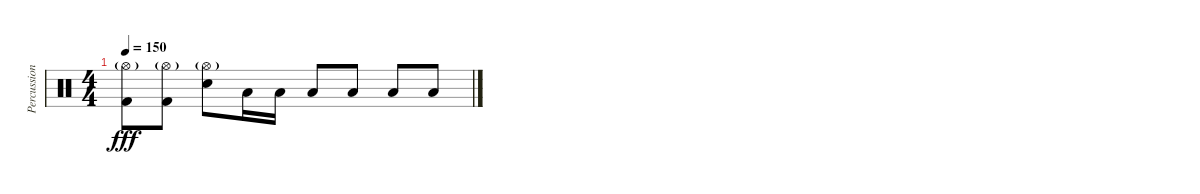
\track ("Percussion" "Percussion") {instrument percussion}
\staff {score}
\articulation defaults
\ts (4 4)
\tempo 150
\clef neutral
\ks c
("Hi-Hat (open)"{g} "Kick (hit) 2").8{dy fff} ("Hi-Hat (open)"{g} "Kick (hit) 2").8 ("Hi-Hat (open)"{g} "Snare (hit) 2").8 "Low Floor Tom (hit)".16 "Low Floor Tom (hit)".16 "Low Floor Tom (hit)".8 "Low Floor Tom (hit)".8 "Low Floor Tom (hit)".8 "Low Floor Tom (hit)".8
